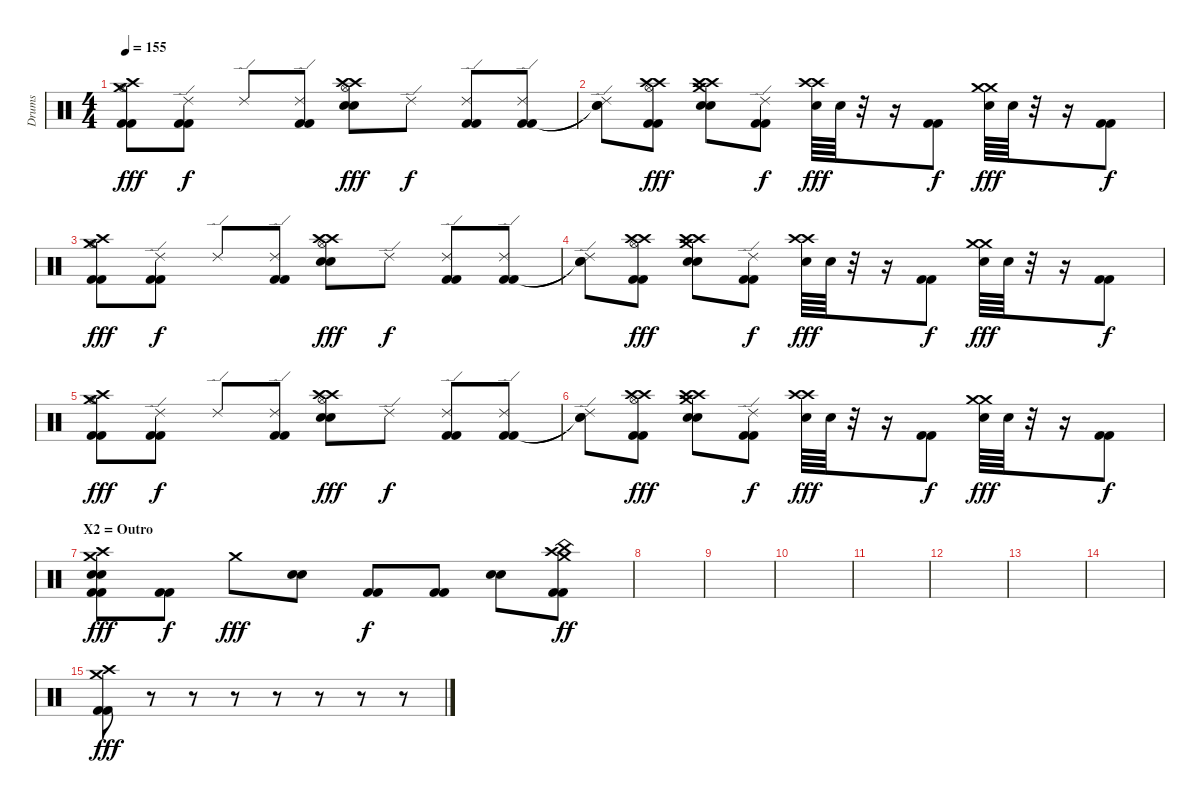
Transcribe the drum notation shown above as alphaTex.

\track ("Drums" "Drums") {instrument percussion}
\staff {score}
\articulation defaults
\ts (4 4)
\tempo 155
\clef neutral
\ks c
("Crash high (hit)" "Crash medium (hit)" "Hi-Hat (open)" "Kick (hit) 2" "Kick (hit) 2").8{dy fff} ("Ride (edge) 2" "Kick (hit) 2" "Kick (hit) 2").8{dy f} "Ride (edge) 2".8 ("Ride (edge) 2" "Kick (hit) 2" "Kick (hit) 2").8 ("Crash high (hit)" "Crash high (hit)" "Hi-Hat (open)" "Snare (hit) 2" "Electric Snare (hit)").8{dy fff} "Ride (edge) 2".8{dy f} ("Ride (edge) 2" "Kick (hit) 2" "Kick (hit) 2").8 ("Ride (edge) 2" "Kick (hit) 2" "Kick (hit) 2").8 |
("Ride (edge) 2" "Snare (hit)"{t} "Snare (hit)"{t}).8 ("Crash high (hit)" "Crash high (hit)" "Hi-Hat (open)" "Kick (hit) 2" "Kick (hit) 2").8{dy fff} ("Crash high (hit)" "Crash high (hit)" "Crash medium (hit)" "Electric Snare (hit)" "Snare (hit) 2").8 ("Ride (edge) 2" "Kick (hit) 2" "Kick (hit) 2").8{dy f} ("Crash high (hit)" "Crash high (hit)" "Snare (hit) 2").64{dy fff} "Electric Snare (hit)".64 r.32 r.16 ("Kick (hit) 2" "Kick (hit) 2").8{dy f} ("Crash medium (hit)" "Crash medium (hit)" "Snare (hit) 2").64{dy fff} "Electric Snare (hit)".64 r.32 r.16 ("Kick (hit) 2" "Kick (hit) 2").8{dy f} |
("Crash high (hit)" "Crash medium (hit)" "Hi-Hat (open)" "Kick (hit) 2" "Kick (hit) 2").8{dy fff} ("Ride (edge) 2" "Kick (hit) 2" "Kick (hit) 2").8{dy f} "Ride (edge) 2".8 ("Ride (edge) 2" "Kick (hit) 2" "Kick (hit) 2").8 ("Crash high (hit)" "Crash high (hit)" "Hi-Hat (open)" "Snare (hit) 2" "Electric Snare (hit)").8{dy fff} "Ride (edge) 2".8{dy f} ("Ride (edge) 2" "Kick (hit) 2" "Kick (hit) 2").8 ("Ride (edge) 2" "Kick (hit) 2" "Kick (hit) 2").8 |
("Ride (edge) 2" "Snare (hit)"{t} "Snare (hit)"{t}).8 ("Crash high (hit)" "Crash high (hit)" "Hi-Hat (open)" "Kick (hit) 2" "Kick (hit) 2").8{dy fff} ("Crash high (hit)" "Crash high (hit)" "Crash medium (hit)" "Electric Snare (hit)" "Snare (hit) 2").8 ("Ride (edge) 2" "Kick (hit) 2" "Kick (hit) 2").8{dy f} ("Crash high (hit)" "Crash high (hit)" "Snare (hit) 2").64{dy fff} "Electric Snare (hit)".64 r.32 r.16 ("Kick (hit) 2" "Kick (hit) 2").8{dy f} ("Crash medium (hit)" "Crash medium (hit)" "Snare (hit) 2").64{dy fff} "Electric Snare (hit)".64 r.32 r.16 ("Kick (hit) 2" "Kick (hit) 2").8{dy f} |
("Crash high (hit)" "Crash medium (hit)" "Hi-Hat (open)" "Kick (hit) 2" "Kick (hit) 2").8{dy fff} ("Ride (edge) 2" "Kick (hit) 2" "Kick (hit) 2").8{dy f} "Ride (edge) 2".8 ("Ride (edge) 2" "Kick (hit) 2" "Kick (hit) 2").8 ("Crash high (hit)" "Crash high (hit)" "Hi-Hat (open)" "Snare (hit) 2" "Electric Snare (hit)").8{dy fff} "Ride (edge) 2".8{dy f} ("Ride (edge) 2" "Kick (hit) 2" "Kick (hit) 2").8 ("Ride (edge) 2" "Kick (hit) 2" "Kick (hit) 2").8 |
("Ride (edge) 2" "Snare (hit)"{t} "Snare (hit)"{t}).8 ("Crash high (hit)" "Crash high (hit)" "Hi-Hat (open)" "Kick (hit) 2" "Kick (hit) 2").8{dy fff} ("Crash high (hit)" "Crash high (hit)" "Crash medium (hit)" "Electric Snare (hit)" "Snare (hit) 2").8 ("Ride (edge) 2" "Kick (hit) 2" "Kick (hit) 2").8{dy f} ("Crash high (hit)" "Crash high (hit)" "Snare (hit) 2").64{dy fff} "Electric Snare (hit)".64 r.32 r.16 ("Kick (hit) 2" "Kick (hit) 2").8{dy f} ("Crash medium (hit)" "Crash medium (hit)" "Snare (hit) 2").64{dy fff} "Electric Snare (hit)".64 r.32 r.16 ("Kick (hit) 2" "Kick (hit) 2").8{dy f} |
\section ("" "X2 = Outro")
("Crash high (hit)" "Crash medium (hit)" "Electric Snare (hit)" "Snare (hit) 2" "Kick (hit) 2" "Kick (hit) 2").8{dy fff} ("Kick (hit) 2" "Kick (hit) 2").8{dy f} "Crash medium (hit)".8{dy fff} ("Electric Snare (hit)" "Snare (hit) 2").8 ("Kick (hit) 2" "Kick (hit) 2").8{dy f} ("Kick (hit) 2" "Kick (hit) 2").8 ("Electric Snare (hit)" "Snare (hit) 2").8 ("Crash high (hit)" "Crash medium (hit)" "China (hit)" "Kick (hit) 2" "Kick (hit) 2").8{dy ff} |
|
|
|
|
|
|
|
("Crash medium (hit)" "Crash high (hit)" "Kick (hit) 2" "Kick (hit) 2").8{dy fff} r.8 r.8 r.8 r.8 r.8 r.8 r.8
